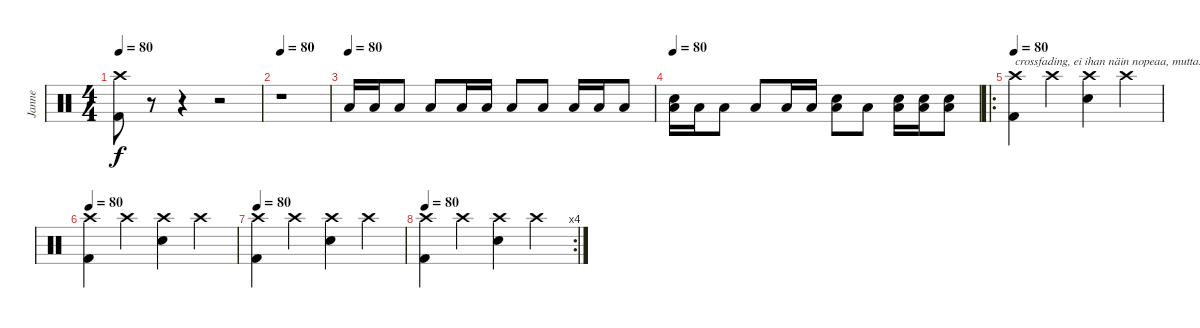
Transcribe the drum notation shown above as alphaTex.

\track ("Janne" "Janne") {instrument percussion}
\staff {score}
\articulation defaults
\ts (4 4)
\tempo 80
\clef neutral
\ks c
("Crash high (hit)" "Kick (hit) 2").8{dy f} r.8 r.4 r.2 |
\tempo 80
r.1 |
\tempo (80)
"Low Floor Tom (hit)".16 "Low Floor Tom (hit)".16 "Low Floor Tom (hit)".8 "Low Floor Tom (hit)".8 "Low Floor Tom (hit)".16 "Low Floor Tom (hit)".16 "Low Floor Tom (hit)".8 "Low Floor Tom (hit)".8 "Low Floor Tom (hit)".16 "Low Floor Tom (hit)".16 "Low Floor Tom (hit)".8 |
\tempo 80
("Low Floor Tom (hit)" "Electric Snare (hit)").16 "Low Floor Tom (hit)".16 "Low Floor Tom (hit)".8 "Low Floor Tom (hit)".8 "Low Floor Tom (hit)".16 "Low Floor Tom (hit)".16 ("Low Floor Tom (hit)" "Electric Snare (hit)").8 "Low Floor Tom (hit)".8 ("Low Floor Tom (hit)" "Electric Snare (hit)").16 ("Low Floor Tom (hit)" "Electric Snare (hit)").16 ("Low Floor Tom (hit)" "Electric Snare (hit)").8 |
\ro
\tempo 80
("Crash high (hit)" "Kick (hit) 2").4{txt "crossfading, ei ihan näin nopeaa, mutta... :)" volume 5} "Crash high (hit)".4 ("Crash high (hit)" "Electric Snare (hit)").4 "Crash high (hit)".4 |
\tempo 80
("Crash high (hit)" "Kick (hit) 2").4 "Crash high (hit)".4 ("Crash high (hit)" "Electric Snare (hit)").4 "Crash high (hit)".4 |
\tempo 80
("Crash high (hit)" "Kick (hit) 2").4 "Crash high (hit)".4 ("Crash high (hit)" "Electric Snare (hit)").4 "Crash high (hit)".4 |
\rc 4
\tempo 80
("Crash high (hit)" "Kick (hit) 2").4 "Crash high (hit)".4 ("Crash high (hit)" "Electric Snare (hit)").4 "Crash high (hit)".4
